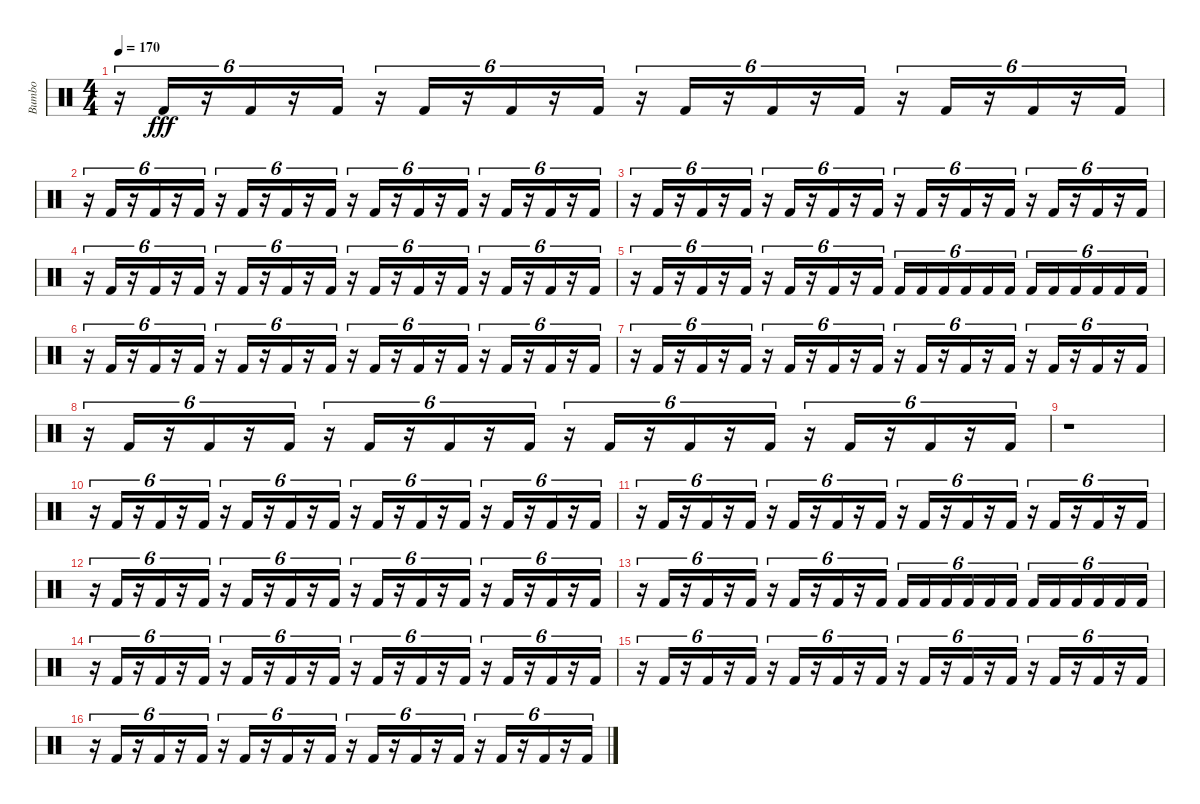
\track ("Bumbo" "Bumbo") {instrument percussion}
\staff {score}
\articulation defaults
\ts (4 4)
\tempo 170
\clef neutral
\ks c
r.16{tu (6 4) dy fff} "Kick (hit) 2".16{tu (6 4)} r.16{tu (6 4)} "Kick (hit) 2".16{tu (6 4)} r.16{tu (6 4)} "Kick (hit) 2".16{tu (6 4)} r.16{tu (6 4)} "Kick (hit) 2".16{tu (6 4)} r.16{tu (6 4)} "Kick (hit) 2".16{tu (6 4)} r.16{tu (6 4)} "Kick (hit) 2".16{tu (6 4)} r.16{tu (6 4)} "Kick (hit) 2".16{tu (6 4)} r.16{tu (6 4)} "Kick (hit) 2".16{tu (6 4)} r.16{tu (6 4)} "Kick (hit) 2".16{tu (6 4)} r.16{tu (6 4)} "Kick (hit) 2".16{tu (6 4)} r.16{tu (6 4)} "Kick (hit) 2".16{tu (6 4)} r.16{tu (6 4)} "Kick (hit) 2".16{tu (6 4)} |
r.16{tu (6 4)} "Kick (hit) 2".16{tu (6 4)} r.16{tu (6 4)} "Kick (hit) 2".16{tu (6 4)} r.16{tu (6 4)} "Kick (hit) 2".16{tu (6 4)} r.16{tu (6 4)} "Kick (hit) 2".16{tu (6 4)} r.16{tu (6 4)} "Kick (hit) 2".16{tu (6 4)} r.16{tu (6 4)} "Kick (hit) 2".16{tu (6 4)} r.16{tu (6 4)} "Kick (hit) 2".16{tu (6 4)} r.16{tu (6 4)} "Kick (hit) 2".16{tu (6 4)} r.16{tu (6 4)} "Kick (hit) 2".16{tu (6 4)} r.16{tu (6 4)} "Kick (hit) 2".16{tu (6 4)} r.16{tu (6 4)} "Kick (hit) 2".16{tu (6 4)} r.16{tu (6 4)} "Kick (hit) 2".16{tu (6 4)} |
r.16{tu (6 4)} "Kick (hit) 2".16{tu (6 4)} r.16{tu (6 4)} "Kick (hit) 2".16{tu (6 4)} r.16{tu (6 4)} "Kick (hit) 2".16{tu (6 4)} r.16{tu (6 4)} "Kick (hit) 2".16{tu (6 4)} r.16{tu (6 4)} "Kick (hit) 2".16{tu (6 4)} r.16{tu (6 4)} "Kick (hit) 2".16{tu (6 4)} r.16{tu (6 4)} "Kick (hit) 2".16{tu (6 4)} r.16{tu (6 4)} "Kick (hit) 2".16{tu (6 4)} r.16{tu (6 4)} "Kick (hit) 2".16{tu (6 4)} r.16{tu (6 4)} "Kick (hit) 2".16{tu (6 4)} r.16{tu (6 4)} "Kick (hit) 2".16{tu (6 4)} r.16{tu (6 4)} "Kick (hit) 2".16{tu (6 4)} |
r.16{tu (6 4)} "Kick (hit) 2".16{tu (6 4)} r.16{tu (6 4)} "Kick (hit) 2".16{tu (6 4)} r.16{tu (6 4)} "Kick (hit) 2".16{tu (6 4)} r.16{tu (6 4)} "Kick (hit) 2".16{tu (6 4)} r.16{tu (6 4)} "Kick (hit) 2".16{tu (6 4)} r.16{tu (6 4)} "Kick (hit) 2".16{tu (6 4)} r.16{tu (6 4)} "Kick (hit) 2".16{tu (6 4)} r.16{tu (6 4)} "Kick (hit) 2".16{tu (6 4)} r.16{tu (6 4)} "Kick (hit) 2".16{tu (6 4)} r.16{tu (6 4)} "Kick (hit) 2".16{tu (6 4)} r.16{tu (6 4)} "Kick (hit) 2".16{tu (6 4)} r.16{tu (6 4)} "Kick (hit) 2".16{tu (6 4)} |
r.16{tu (6 4)} "Kick (hit) 2".16{tu (6 4)} r.16{tu (6 4)} "Kick (hit) 2".16{tu (6 4)} r.16{tu (6 4)} "Kick (hit) 2".16{tu (6 4)} r.16{tu (6 4)} "Kick (hit) 2".16{tu (6 4)} r.16{tu (6 4)} "Kick (hit) 2".16{tu (6 4)} r.16{tu (6 4)} "Kick (hit) 2".16{tu (6 4)} "Kick (hit) 2".16{tu (6 4)} "Kick (hit) 2".16{tu (6 4)} "Kick (hit) 2".16{tu (6 4)} "Kick (hit) 2".16{tu (6 4)} "Kick (hit) 2".16{tu (6 4)} "Kick (hit) 2".16{tu (6 4)} "Kick (hit) 2".16{tu (6 4)} "Kick (hit) 2".16{tu (6 4)} "Kick (hit) 2".16{tu (6 4)} "Kick (hit) 2".16{tu (6 4)} "Kick (hit) 2".16{tu (6 4)} "Kick (hit) 2".16{tu (6 4)} |
r.16{tu (6 4)} "Kick (hit) 2".16{tu (6 4)} r.16{tu (6 4)} "Kick (hit) 2".16{tu (6 4)} r.16{tu (6 4)} "Kick (hit) 2".16{tu (6 4)} r.16{tu (6 4)} "Kick (hit) 2".16{tu (6 4)} r.16{tu (6 4)} "Kick (hit) 2".16{tu (6 4)} r.16{tu (6 4)} "Kick (hit) 2".16{tu (6 4)} r.16{tu (6 4)} "Kick (hit) 2".16{tu (6 4)} r.16{tu (6 4)} "Kick (hit) 2".16{tu (6 4)} r.16{tu (6 4)} "Kick (hit) 2".16{tu (6 4)} r.16{tu (6 4)} "Kick (hit) 2".16{tu (6 4)} r.16{tu (6 4)} "Kick (hit) 2".16{tu (6 4)} r.16{tu (6 4)} "Kick (hit) 2".16{tu (6 4)} |
r.16{tu (6 4)} "Kick (hit) 2".16{tu (6 4)} r.16{tu (6 4)} "Kick (hit) 2".16{tu (6 4)} r.16{tu (6 4)} "Kick (hit) 2".16{tu (6 4)} r.16{tu (6 4)} "Kick (hit) 2".16{tu (6 4)} r.16{tu (6 4)} "Kick (hit) 2".16{tu (6 4)} r.16{tu (6 4)} "Kick (hit) 2".16{tu (6 4)} r.16{tu (6 4)} "Kick (hit) 2".16{tu (6 4)} r.16{tu (6 4)} "Kick (hit) 2".16{tu (6 4)} r.16{tu (6 4)} "Kick (hit) 2".16{tu (6 4)} r.16{tu (6 4)} "Kick (hit) 2".16{tu (6 4)} r.16{tu (6 4)} "Kick (hit) 2".16{tu (6 4)} r.16{tu (6 4)} "Kick (hit) 2".16{tu (6 4)} |
r.16{tu (6 4)} "Kick (hit) 2".16{tu (6 4)} r.16{tu (6 4)} "Kick (hit) 2".16{tu (6 4)} r.16{tu (6 4)} "Kick (hit) 2".16{tu (6 4)} r.16{tu (6 4)} "Kick (hit) 2".16{tu (6 4)} r.16{tu (6 4)} "Kick (hit) 2".16{tu (6 4)} r.16{tu (6 4)} "Kick (hit) 2".16{tu (6 4)} r.16{tu (6 4)} "Kick (hit) 2".16{tu (6 4)} r.16{tu (6 4)} "Kick (hit) 2".16{tu (6 4)} r.16{tu (6 4)} "Kick (hit) 2".16{tu (6 4)} r.16{tu (6 4)} "Kick (hit) 2".16{tu (6 4)} r.16{tu (6 4)} "Kick (hit) 2".16{tu (6 4)} r.16{tu (6 4)} "Kick (hit) 2".16{tu (6 4)} |
r.1 |
r.16{tu (6 4)} "Kick (hit) 2".16{tu (6 4)} r.16{tu (6 4)} "Kick (hit) 2".16{tu (6 4)} r.16{tu (6 4)} "Kick (hit) 2".16{tu (6 4)} r.16{tu (6 4)} "Kick (hit) 2".16{tu (6 4)} r.16{tu (6 4)} "Kick (hit) 2".16{tu (6 4)} r.16{tu (6 4)} "Kick (hit) 2".16{tu (6 4)} r.16{tu (6 4)} "Kick (hit) 2".16{tu (6 4)} r.16{tu (6 4)} "Kick (hit) 2".16{tu (6 4)} r.16{tu (6 4)} "Kick (hit) 2".16{tu (6 4)} r.16{tu (6 4)} "Kick (hit) 2".16{tu (6 4)} r.16{tu (6 4)} "Kick (hit) 2".16{tu (6 4)} r.16{tu (6 4)} "Kick (hit) 2".16{tu (6 4)} |
r.16{tu (6 4)} "Kick (hit) 2".16{tu (6 4)} r.16{tu (6 4)} "Kick (hit) 2".16{tu (6 4)} r.16{tu (6 4)} "Kick (hit) 2".16{tu (6 4)} r.16{tu (6 4)} "Kick (hit) 2".16{tu (6 4)} r.16{tu (6 4)} "Kick (hit) 2".16{tu (6 4)} r.16{tu (6 4)} "Kick (hit) 2".16{tu (6 4)} r.16{tu (6 4)} "Kick (hit) 2".16{tu (6 4)} r.16{tu (6 4)} "Kick (hit) 2".16{tu (6 4)} r.16{tu (6 4)} "Kick (hit) 2".16{tu (6 4)} r.16{tu (6 4)} "Kick (hit) 2".16{tu (6 4)} r.16{tu (6 4)} "Kick (hit) 2".16{tu (6 4)} r.16{tu (6 4)} "Kick (hit) 2".16{tu (6 4)} |
r.16{tu (6 4)} "Kick (hit) 2".16{tu (6 4)} r.16{tu (6 4)} "Kick (hit) 2".16{tu (6 4)} r.16{tu (6 4)} "Kick (hit) 2".16{tu (6 4)} r.16{tu (6 4)} "Kick (hit) 2".16{tu (6 4)} r.16{tu (6 4)} "Kick (hit) 2".16{tu (6 4)} r.16{tu (6 4)} "Kick (hit) 2".16{tu (6 4)} r.16{tu (6 4)} "Kick (hit) 2".16{tu (6 4)} r.16{tu (6 4)} "Kick (hit) 2".16{tu (6 4)} r.16{tu (6 4)} "Kick (hit) 2".16{tu (6 4)} r.16{tu (6 4)} "Kick (hit) 2".16{tu (6 4)} r.16{tu (6 4)} "Kick (hit) 2".16{tu (6 4)} r.16{tu (6 4)} "Kick (hit) 2".16{tu (6 4)} |
r.16{tu (6 4)} "Kick (hit) 2".16{tu (6 4)} r.16{tu (6 4)} "Kick (hit) 2".16{tu (6 4)} r.16{tu (6 4)} "Kick (hit) 2".16{tu (6 4)} r.16{tu (6 4)} "Kick (hit) 2".16{tu (6 4)} r.16{tu (6 4)} "Kick (hit) 2".16{tu (6 4)} r.16{tu (6 4)} "Kick (hit) 2".16{tu (6 4)} "Kick (hit) 2".16{tu (6 4)} "Kick (hit) 2".16{tu (6 4)} "Kick (hit) 2".16{tu (6 4)} "Kick (hit) 2".16{tu (6 4)} "Kick (hit) 2".16{tu (6 4)} "Kick (hit) 2".16{tu (6 4)} "Kick (hit) 2".16{tu (6 4)} "Kick (hit) 2".16{tu (6 4)} "Kick (hit) 2".16{tu (6 4)} "Kick (hit) 2".16{tu (6 4)} "Kick (hit) 2".16{tu (6 4)} "Kick (hit) 2".16{tu (6 4)} |
r.16{tu (6 4)} "Kick (hit) 2".16{tu (6 4)} r.16{tu (6 4)} "Kick (hit) 2".16{tu (6 4)} r.16{tu (6 4)} "Kick (hit) 2".16{tu (6 4)} r.16{tu (6 4)} "Kick (hit) 2".16{tu (6 4)} r.16{tu (6 4)} "Kick (hit) 2".16{tu (6 4)} r.16{tu (6 4)} "Kick (hit) 2".16{tu (6 4)} r.16{tu (6 4)} "Kick (hit) 2".16{tu (6 4)} r.16{tu (6 4)} "Kick (hit) 2".16{tu (6 4)} r.16{tu (6 4)} "Kick (hit) 2".16{tu (6 4)} r.16{tu (6 4)} "Kick (hit) 2".16{tu (6 4)} r.16{tu (6 4)} "Kick (hit) 2".16{tu (6 4)} r.16{tu (6 4)} "Kick (hit) 2".16{tu (6 4)} |
r.16{tu (6 4)} "Kick (hit) 2".16{tu (6 4)} r.16{tu (6 4)} "Kick (hit) 2".16{tu (6 4)} r.16{tu (6 4)} "Kick (hit) 2".16{tu (6 4)} r.16{tu (6 4)} "Kick (hit) 2".16{tu (6 4)} r.16{tu (6 4)} "Kick (hit) 2".16{tu (6 4)} r.16{tu (6 4)} "Kick (hit) 2".16{tu (6 4)} r.16{tu (6 4)} "Kick (hit) 2".16{tu (6 4)} r.16{tu (6 4)} "Kick (hit) 2".16{tu (6 4)} r.16{tu (6 4)} "Kick (hit) 2".16{tu (6 4)} r.16{tu (6 4)} "Kick (hit) 2".16{tu (6 4)} r.16{tu (6 4)} "Kick (hit) 2".16{tu (6 4)} r.16{tu (6 4)} "Kick (hit) 2".16{tu (6 4)} |
r.16{tu (6 4)} "Kick (hit) 2".16{tu (6 4)} r.16{tu (6 4)} "Kick (hit) 2".16{tu (6 4)} r.16{tu (6 4)} "Kick (hit) 2".16{tu (6 4)} r.16{tu (6 4)} "Kick (hit) 2".16{tu (6 4)} r.16{tu (6 4)} "Kick (hit) 2".16{tu (6 4)} r.16{tu (6 4)} "Kick (hit) 2".16{tu (6 4)} r.16{tu (6 4)} "Kick (hit) 2".16{tu (6 4)} r.16{tu (6 4)} "Kick (hit) 2".16{tu (6 4)} r.16{tu (6 4)} "Kick (hit) 2".16{tu (6 4)} r.16{tu (6 4)} "Kick (hit) 2".16{tu (6 4)} r.16{tu (6 4)} "Kick (hit) 2".16{tu (6 4)} r.16{tu (6 4)} "Kick (hit) 2".16{tu (6 4)}
